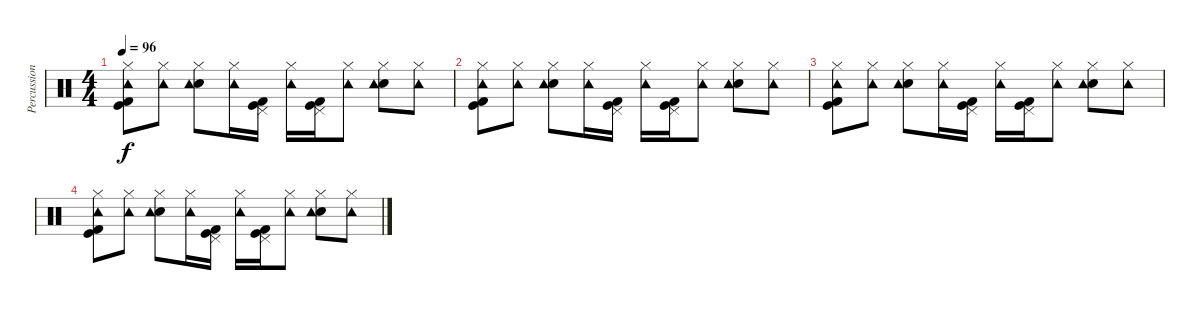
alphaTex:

\track ("Percussions" "Percussion") {instrument percussion}
\staff {score}
\articulation defaults
\ts (4 4)
\tempo 96
\clef neutral
\ks c
("Kick (hit) 2" "Hi-Hat (closed)" "Tambourine (hit)" "Kick (hit)").8{dy f} ("Hi-Hat (closed)" "Tambourine (hit)").8 ("Hi-Hat (closed)" "Snare (hit) 2" "Tambourine (hit)").8 ("Hi-Hat (closed)" "Tambourine (hit)").16 ("Kick (hit) 2" "Pedal Hi-Hat (hit)" "Kick (hit)").16 ("Hi-Hat (closed)" "Tambourine (hit)").16 ("Kick (hit) 2" "Pedal Hi-Hat (hit)" "Kick (hit)").16 ("Hi-Hat (closed)" "Tambourine (hit)").8 ("Hi-Hat (closed)" "Snare (hit) 2" "Tambourine (hit)").8 ("Hi-Hat (closed)" "Tambourine (hit)").8 |
("Kick (hit) 2" "Hi-Hat (closed)" "Tambourine (hit)" "Kick (hit)").8 ("Hi-Hat (closed)" "Tambourine (hit)").8 ("Hi-Hat (closed)" "Snare (hit) 2" "Tambourine (hit)").8 ("Hi-Hat (closed)" "Tambourine (hit)").16 ("Kick (hit) 2" "Pedal Hi-Hat (hit)" "Kick (hit)").16 ("Hi-Hat (closed)" "Tambourine (hit)").16 ("Kick (hit) 2" "Pedal Hi-Hat (hit)" "Kick (hit)").16 ("Hi-Hat (closed)" "Tambourine (hit)").8 ("Hi-Hat (closed)" "Snare (hit) 2" "Tambourine (hit)").8 ("Hi-Hat (closed)" "Tambourine (hit)").8 |
("Kick (hit) 2" "Hi-Hat (closed)" "Tambourine (hit)" "Kick (hit)").8 ("Hi-Hat (closed)" "Tambourine (hit)").8 ("Hi-Hat (closed)" "Snare (hit) 2" "Tambourine (hit)").8 ("Hi-Hat (closed)" "Tambourine (hit)").16 ("Kick (hit) 2" "Pedal Hi-Hat (hit)" "Kick (hit)").16 ("Hi-Hat (closed)" "Tambourine (hit)").16 ("Kick (hit) 2" "Pedal Hi-Hat (hit)" "Kick (hit)").16 ("Hi-Hat (closed)" "Tambourine (hit)").8 ("Hi-Hat (closed)" "Snare (hit) 2" "Tambourine (hit)").8 ("Hi-Hat (closed)" "Tambourine (hit)").8 |
("Kick (hit) 2" "Hi-Hat (closed)" "Tambourine (hit)" "Kick (hit)").8 ("Hi-Hat (closed)" "Tambourine (hit)").8 ("Hi-Hat (closed)" "Snare (hit) 2" "Tambourine (hit)").8 ("Hi-Hat (closed)" "Tambourine (hit)").16 ("Kick (hit) 2" "Pedal Hi-Hat (hit)" "Kick (hit)").16 ("Hi-Hat (closed)" "Tambourine (hit)").16 ("Kick (hit) 2" "Pedal Hi-Hat (hit)" "Kick (hit)").16 ("Hi-Hat (closed)" "Tambourine (hit)").8 ("Hi-Hat (closed)" "Snare (hit) 2" "Tambourine (hit)").8 ("Hi-Hat (closed)" "Tambourine (hit)").8
